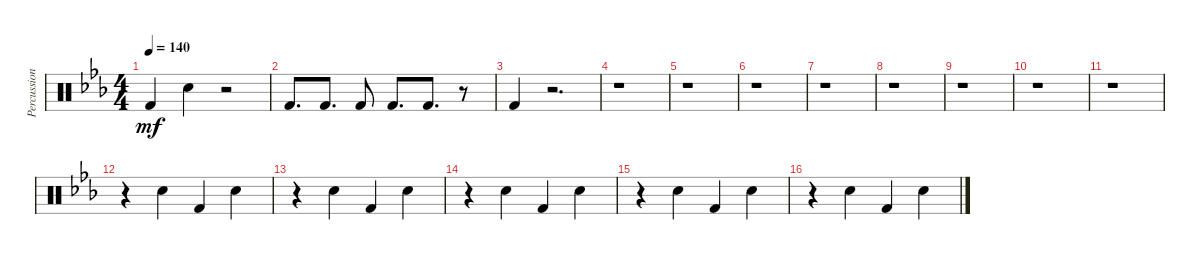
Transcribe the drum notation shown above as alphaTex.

\track ("Percussions" "Percussion") {instrument percussion}
\staff {score}
\articulation defaults
\ts (4 4)
\tempo 140
\clef neutral
\ks cminor "Kick (hit) 2".4{dy mf} "Snare (hit) 2".4
r.2 |
"Kick (hit) 2".8{d} "Kick (hit) 2".8{d} "Kick (hit) 2".8 "Kick (hit) 2".8{d} "Kick (hit) 2".8{d} r.8 |
"Kick (hit) 2".4 r.2{d} |
r.1 |
r.1 |
r.1 |
r.1 |
r.1 |
r.1 |
r.1 |
r.1 |
r.4 "Snare (hit) 2".4 "Kick (hit) 2".4 "Snare (hit) 2".4 |
r.4 "Snare (hit) 2".4 "Kick (hit) 2".4 "Snare (hit) 2".4 |
r.4 "Snare (hit) 2".4 "Kick (hit) 2".4 "Snare (hit) 2".4 |
r.4 "Snare (hit) 2".4 "Kick (hit) 2".4 "Snare (hit) 2".4 |
r.4 "Snare (hit) 2".4 "Kick (hit) 2".4 "Snare (hit) 2".4
